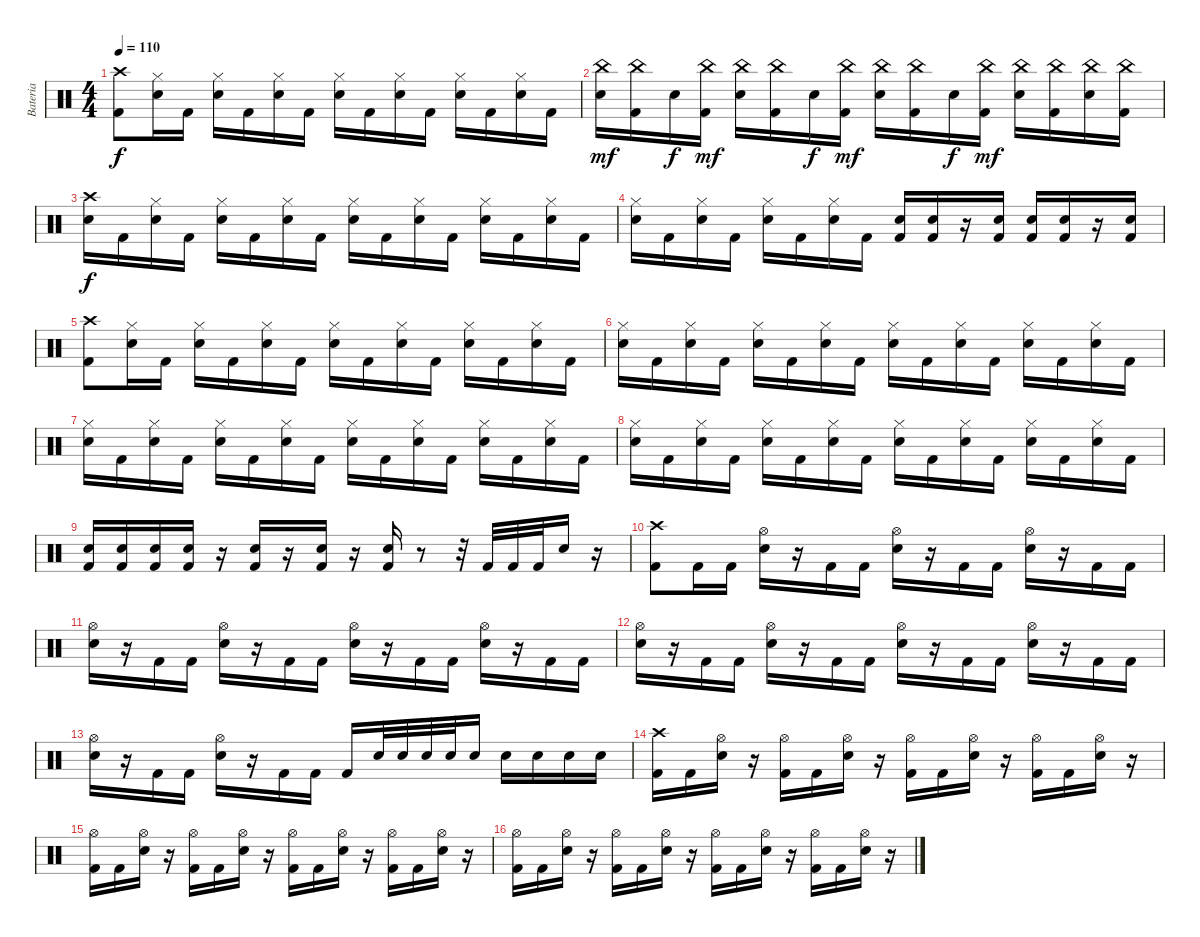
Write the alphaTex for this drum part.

\track ("Bateria" "Bateria") {instrument percussion}
\staff {score}
\articulation defaults
\ts (4 4)
\tempo 110
\clef neutral
\ks c
("Crash high (hit)" "Kick (hit) 2").8{dy f} ("Hi-Hat (closed)" "Electric Snare (hit)").16 "Kick (hit) 2".16 ("Hi-Hat (closed)" "Electric Snare (hit)").16 "Kick (hit) 2".16 ("Hi-Hat (closed)" "Electric Snare (hit)").16 "Kick (hit) 2".16 ("Hi-Hat (closed)" "Electric Snare (hit)").16 "Kick (hit) 2".16 ("Hi-Hat (closed)" "Electric Snare (hit)").16 "Kick (hit) 2".16 ("Hi-Hat (closed)" "Electric Snare (hit)").16 "Kick (hit) 2".16 ("Hi-Hat (closed)" "Electric Snare (hit)").16 "Kick (hit) 2".16 |
("China (hit)" "Electric Snare (hit)").16{dy mf} ("China (hit)" "Kick (hit) 2").16 "Electric Snare (hit)".16{dy f} ("China (hit)" "Kick (hit) 2").16{dy mf} ("China (hit)" "Electric Snare (hit)").16 ("China (hit)" "Kick (hit) 2").16 "Electric Snare (hit)".16{dy f} ("China (hit)" "Kick (hit) 2").16{dy mf} ("China (hit)" "Electric Snare (hit)").16 ("China (hit)" "Kick (hit) 2").16 "Electric Snare (hit)".16{dy f} ("China (hit)" "Kick (hit) 2").16{dy mf} ("China (hit)" "Electric Snare (hit)").16 ("China (hit)" "Kick (hit) 2").16 ("China (hit)" "Electric Snare (hit)").16 ("China (hit)" "Kick (hit) 2").16 |
("Crash high (hit)" "Electric Snare (hit)").16{dy f} "Kick (hit) 2".16 ("Hi-Hat (closed)" "Electric Snare (hit)").16 "Kick (hit) 2".16 ("Hi-Hat (closed)" "Electric Snare (hit)").16 "Kick (hit) 2".16 ("Hi-Hat (closed)" "Electric Snare (hit)").16 "Kick (hit) 2".16 ("Hi-Hat (closed)" "Electric Snare (hit)").16 "Kick (hit) 2".16 ("Hi-Hat (closed)" "Electric Snare (hit)").16 "Kick (hit) 2".16 ("Hi-Hat (closed)" "Electric Snare (hit)").16 "Kick (hit) 2".16 ("Hi-Hat (closed)" "Electric Snare (hit)").16 "Kick (hit) 2".16 |
("Hi-Hat (closed)" "Electric Snare (hit)").16 "Kick (hit) 2".16 ("Hi-Hat (closed)" "Electric Snare (hit)").16 "Kick (hit) 2".16 ("Hi-Hat (closed)" "Electric Snare (hit)").16 "Kick (hit) 2".16 ("Hi-Hat (closed)" "Electric Snare (hit)").16 "Kick (hit) 2".16 ("Electric Snare (hit)" "Kick (hit) 2").16 ("Electric Snare (hit)" "Kick (hit) 2").16 r.16 ("Electric Snare (hit)" "Kick (hit) 2").16 ("Electric Snare (hit)" "Kick (hit) 2").16 ("Electric Snare (hit)" "Kick (hit) 2").16 r.16 ("Electric Snare (hit)" "Kick (hit) 2").16 |
("Crash high (hit)" "Kick (hit) 2").8 ("Hi-Hat (closed)" "Electric Snare (hit)").16 "Kick (hit) 2".16 ("Hi-Hat (closed)" "Electric Snare (hit)").16 "Kick (hit) 2".16 ("Hi-Hat (closed)" "Electric Snare (hit)").16 "Kick (hit) 2".16 ("Hi-Hat (closed)" "Electric Snare (hit)").16 "Kick (hit) 2".16 ("Hi-Hat (closed)" "Electric Snare (hit)").16 "Kick (hit) 2".16 ("Hi-Hat (closed)" "Electric Snare (hit)").16 "Kick (hit) 2".16 ("Hi-Hat (closed)" "Electric Snare (hit)").16 "Kick (hit) 2".16 |
("Hi-Hat (closed)" "Electric Snare (hit)").16 "Kick (hit) 2".16 ("Hi-Hat (closed)" "Electric Snare (hit)").16 "Kick (hit) 2".16 ("Hi-Hat (closed)" "Electric Snare (hit)").16 "Kick (hit) 2".16 ("Hi-Hat (closed)" "Electric Snare (hit)").16 "Kick (hit) 2".16 ("Hi-Hat (closed)" "Electric Snare (hit)").16 "Kick (hit) 2".16 ("Hi-Hat (closed)" "Electric Snare (hit)").16 "Kick (hit) 2".16 ("Hi-Hat (closed)" "Electric Snare (hit)").16 "Kick (hit) 2".16 ("Hi-Hat (closed)" "Electric Snare (hit)").16 "Kick (hit) 2".16 |
("Hi-Hat (closed)" "Electric Snare (hit)").16 "Kick (hit) 2".16 ("Hi-Hat (closed)" "Electric Snare (hit)").16 "Kick (hit) 2".16 ("Hi-Hat (closed)" "Electric Snare (hit)").16 "Kick (hit) 2".16 ("Hi-Hat (closed)" "Electric Snare (hit)").16 "Kick (hit) 2".16 ("Hi-Hat (closed)" "Electric Snare (hit)").16 "Kick (hit) 2".16 ("Hi-Hat (closed)" "Electric Snare (hit)").16 "Kick (hit) 2".16 ("Hi-Hat (closed)" "Electric Snare (hit)").16 "Kick (hit) 2".16 ("Hi-Hat (closed)" "Electric Snare (hit)").16 "Kick (hit) 2".16 |
("Hi-Hat (closed)" "Electric Snare (hit)").16 "Kick (hit) 2".16 ("Hi-Hat (closed)" "Electric Snare (hit)").16 "Kick (hit) 2".16 ("Hi-Hat (closed)" "Electric Snare (hit)").16 "Kick (hit) 2".16 ("Hi-Hat (closed)" "Electric Snare (hit)").16 "Kick (hit) 2".16 ("Hi-Hat (closed)" "Electric Snare (hit)").16 "Kick (hit) 2".16 ("Hi-Hat (closed)" "Electric Snare (hit)").16 "Kick (hit) 2".16 ("Hi-Hat (closed)" "Electric Snare (hit)").16 "Kick (hit) 2".16 ("Hi-Hat (closed)" "Electric Snare (hit)").16 "Kick (hit) 2".16 |
("Electric Snare (hit)" "Kick (hit) 2").16 ("Electric Snare (hit)" "Kick (hit) 2").16 ("Electric Snare (hit)" "Kick (hit) 2").16 ("Electric Snare (hit)" "Kick (hit) 2").16 r.16 ("Electric Snare (hit)" "Kick (hit) 2").16 r.16 ("Electric Snare (hit)" "Kick (hit) 2").16 r.16 ("Electric Snare (hit)" "Kick (hit) 2").16 r.8 r.32 "Kick (hit) 2".32 "Kick (hit) 2".32 "Kick (hit) 2".32 "Electric Snare (hit)".16 r.16 |
("Crash high (hit)" "Kick (hit) 2").8 "Kick (hit) 2".16 "Kick (hit) 2".16 ("Hi-Hat (open)" "Electric Snare (hit)").16 r.16 "Kick (hit) 2".16 "Kick (hit) 2".16 ("Hi-Hat (open)" "Electric Snare (hit)").16 r.16 "Kick (hit) 2".16 "Kick (hit) 2".16 ("Hi-Hat (open)" "Electric Snare (hit)").16 r.16 "Kick (hit) 2".16 "Kick (hit) 2".16 |
("Hi-Hat (open)" "Electric Snare (hit)").16 r.16 "Kick (hit) 2".16 "Kick (hit) 2".16 ("Hi-Hat (open)" "Electric Snare (hit)").16 r.16 "Kick (hit) 2".16 "Kick (hit) 2".16 ("Hi-Hat (open)" "Electric Snare (hit)").16 r.16 "Kick (hit) 2".16 "Kick (hit) 2".16 ("Hi-Hat (open)" "Electric Snare (hit)").16 r.16 "Kick (hit) 2".16 "Kick (hit) 2".16 |
("Hi-Hat (open)" "Electric Snare (hit)").16 r.16 "Kick (hit) 2".16 "Kick (hit) 2".16 ("Hi-Hat (open)" "Electric Snare (hit)").16 r.16 "Kick (hit) 2".16 "Kick (hit) 2".16 ("Hi-Hat (open)" "Electric Snare (hit)").16 r.16 "Kick (hit) 2".16 "Kick (hit) 2".16 ("Hi-Hat (open)" "Electric Snare (hit)").16 r.16 "Kick (hit) 2".16 "Kick (hit) 2".16 |
("Hi-Hat (open)" "Electric Snare (hit)").16 r.16 "Kick (hit) 2".16 "Kick (hit) 2".16 ("Hi-Hat (open)" "Electric Snare (hit)").16 r.16 "Kick (hit) 2".16 "Kick (hit) 2".16 "Kick (hit) 2".16 "Electric Snare (hit)".32 "Electric Snare (hit)".32 "Electric Snare (hit)".32 "Electric Snare (hit)".32 "Electric Snare (hit)".16 "Electric Snare (hit)".16 "Electric Snare (hit)".16 "Electric Snare (hit)".16 "Electric Snare (hit)".16 |
("Crash high (hit)" "Kick (hit) 2").16 "Kick (hit) 2".16 ("Hi-Hat (open)" "Electric Snare (hit)").16 r.16 ("Hi-Hat (open)" "Kick (hit) 2").16 "Kick (hit) 2".16 ("Hi-Hat (open)" "Electric Snare (hit)").16 r.16 ("Hi-Hat (open)" "Kick (hit) 2").16 "Kick (hit) 2".16 ("Hi-Hat (open)" "Electric Snare (hit)").16 r.16 ("Hi-Hat (open)" "Kick (hit) 2").16 "Kick (hit) 2".16 ("Hi-Hat (open)" "Electric Snare (hit)").16 r.16 |
("Hi-Hat (open)" "Kick (hit) 2").16 "Kick (hit) 2".16 ("Hi-Hat (open)" "Electric Snare (hit)").16 r.16 ("Hi-Hat (open)" "Kick (hit) 2").16 "Kick (hit) 2".16 ("Hi-Hat (open)" "Electric Snare (hit)").16 r.16 ("Hi-Hat (open)" "Kick (hit) 2").16 "Kick (hit) 2".16 ("Hi-Hat (open)" "Electric Snare (hit)").16 r.16 ("Hi-Hat (open)" "Kick (hit) 2").16 "Kick (hit) 2".16 ("Hi-Hat (open)" "Electric Snare (hit)").16 r.16 |
("Hi-Hat (open)" "Kick (hit) 2").16 "Kick (hit) 2".16 ("Hi-Hat (open)" "Electric Snare (hit)").16 r.16 ("Hi-Hat (open)" "Kick (hit) 2").16 "Kick (hit) 2".16 ("Hi-Hat (open)" "Electric Snare (hit)").16 r.16 ("Hi-Hat (open)" "Kick (hit) 2").16 "Kick (hit) 2".16 ("Hi-Hat (open)" "Electric Snare (hit)").16 r.16 ("Hi-Hat (open)" "Kick (hit) 2").16 "Kick (hit) 2".16 ("Hi-Hat (open)" "Electric Snare (hit)").16 r.16
